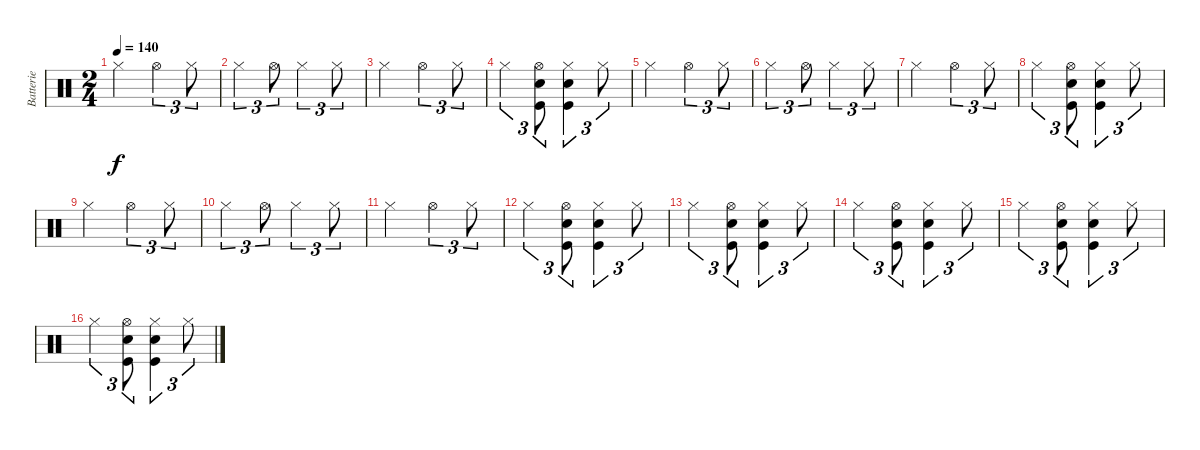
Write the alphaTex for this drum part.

\track ("Batterie" "Batterie") {instrument percussion}
\staff {score}
\articulation defaults
\ts (2 4)
\tempo 140
\clef neutral
\ks c "Hi-Hat (closed)".4{dy f} "Hi-Hat (open)".4{tu (3 2)} "Hi-Hat (closed)".8{tu (3 2)}
|
"Hi-Hat (closed)".4{tu (3 2)} "Hi-Hat (open)".8{tu (3 2)} "Hi-Hat (closed)".4{tu (3 2)} "Hi-Hat (closed)".8{tu (3 2)} |
"Hi-Hat (closed)".4 "Hi-Hat (open)".4{tu (3 2)} "Hi-Hat (closed)".8{tu (3 2)} |
"Hi-Hat (closed)".4{tu (3 2)} ("Hi-Hat (open)" "Snare (hit) 2" "Kick (hit)").8{tu (3 2)} ("Hi-Hat (closed)" "Snare (hit) 2" "Kick (hit)").4{tu (3 2)} "Hi-Hat (closed)".8{tu (3 2)} |
"Hi-Hat (closed)".4 "Hi-Hat (open)".4{tu (3 2)} "Hi-Hat (closed)".8{tu (3 2)} |
"Hi-Hat (closed)".4{tu (3 2)} "Hi-Hat (open)".8{tu (3 2)} "Hi-Hat (closed)".4{tu (3 2)} "Hi-Hat (closed)".8{tu (3 2)} |
"Hi-Hat (closed)".4 "Hi-Hat (open)".4{tu (3 2)} "Hi-Hat (closed)".8{tu (3 2)} |
"Hi-Hat (closed)".4{tu (3 2)} ("Hi-Hat (open)" "Snare (hit) 2" "Kick (hit)").8{tu (3 2)} ("Hi-Hat (closed)" "Snare (hit) 2" "Kick (hit)").4{tu (3 2)} "Hi-Hat (closed)".8{tu (3 2)} |
"Hi-Hat (closed)".4 "Hi-Hat (open)".4{tu (3 2)} "Hi-Hat (closed)".8{tu (3 2)} |
"Hi-Hat (closed)".4{tu (3 2)} "Hi-Hat (open)".8{tu (3 2)} "Hi-Hat (closed)".4{tu (3 2)} "Hi-Hat (closed)".8{tu (3 2)} |
"Hi-Hat (closed)".4 "Hi-Hat (open)".4{tu (3 2)} "Hi-Hat (closed)".8{tu (3 2)} |
"Hi-Hat (closed)".4{tu (3 2)} ("Hi-Hat (open)" "Snare (hit) 2" "Kick (hit)").8{tu (3 2)} ("Hi-Hat (closed)" "Snare (hit) 2" "Kick (hit)").4{tu (3 2)} "Hi-Hat (closed)".8{tu (3 2)} |
"Hi-Hat (closed)".4{tu (3 2)} ("Hi-Hat (open)" "Snare (hit) 2" "Kick (hit)").8{tu (3 2)} ("Hi-Hat (closed)" "Snare (hit) 2" "Kick (hit)").4{tu (3 2)} "Hi-Hat (closed)".8{tu (3 2)} |
"Hi-Hat (closed)".4{tu (3 2)} ("Hi-Hat (open)" "Snare (hit) 2" "Kick (hit)").8{tu (3 2)} ("Hi-Hat (closed)" "Snare (hit) 2" "Kick (hit)").4{tu (3 2)} "Hi-Hat (closed)".8{tu (3 2)} |
"Hi-Hat (closed)".4{tu (3 2)} ("Hi-Hat (open)" "Snare (hit) 2" "Kick (hit)").8{tu (3 2)} ("Hi-Hat (closed)" "Snare (hit) 2" "Kick (hit)").4{tu (3 2)} "Hi-Hat (closed)".8{tu (3 2)} |
"Hi-Hat (closed)".4{tu (3 2)} ("Hi-Hat (open)" "Snare (hit) 2" "Kick (hit)").8{tu (3 2)} ("Hi-Hat (closed)" "Snare (hit) 2" "Kick (hit)").4{tu (3 2)} "Hi-Hat (closed)".8{tu (3 2)}
